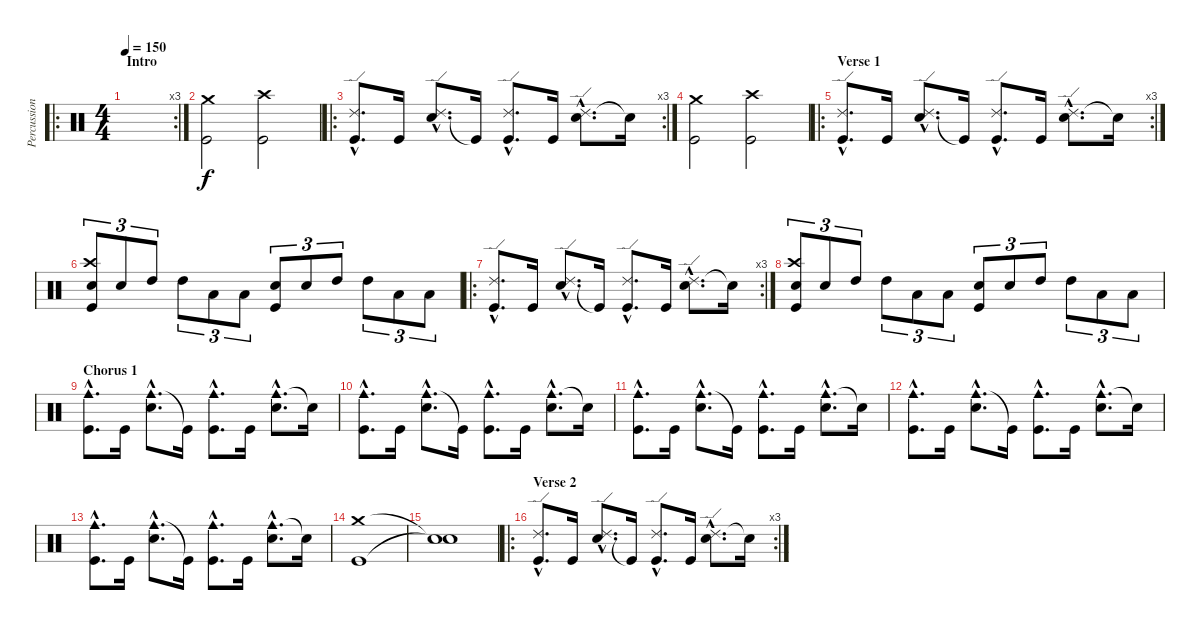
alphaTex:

\track ("Percussion" "Percussion") {instrument percussion}
\staff {score}
\articulation defaults
\ro
\rc 3
\ts (4 4)
\section ("" "Intro")
\tempo 150
\clef neutral
\ks c
|
("Crash medium (hit)" "Kick (hit)").2 ("Crash high (hit)" "Kick (hit)").2 |
\ro
\rc 3
("Ride (edge) 2"{hac} "Kick (hit)"{hac}).8{d} "Kick (hit)".16 ("Ride (edge) 2"{hac} "Snare (hit) 2"{hac}).8{d} "Kick (hit)"{t}.16 ("Ride (edge) 2"{hac} "Kick (hit)"{hac}).8{d} "Kick (hit)".16 ("Ride (edge) 2"{hac} "Snare (hit) 2"{hac}).8{d} "Snare (hit)"{t}.16 |
("Crash medium (hit)" "Kick (hit)").2 ("Crash high (hit)" "Kick (hit)").2 |
\ro
\rc 3
\section ("" "Verse 1")
("Ride (edge) 2"{hac} "Kick (hit)"{hac}).8{d} "Kick (hit)".16 ("Ride (edge) 2"{hac} "Snare (hit) 2"{hac}).8{d} "Kick (hit)"{t}.16 ("Ride (edge) 2"{hac} "Kick (hit)"{hac}).8{d} "Kick (hit)".16 ("Ride (edge) 2"{hac} "Snare (hit) 2"{hac}).8{d} "Snare (hit)"{t}.16 |
("Crash high (hit)" "Snare (hit) 2" "Kick (hit)").8{tu (3 2)} "Snare (hit) 2".8{tu (3 2)} "High Tom (hit)".8{tu (3 2)} "High Tom (hit)".8{tu (3 2)} "Low Floor Tom (hit)".8{tu (3 2)} "Low Floor Tom (hit)".8{tu (3 2)} ("Snare (hit) 2" "Kick (hit)").8{tu (3 2)} "Snare (hit) 2".8{tu (3 2)} "High Tom (hit)".8{tu (3 2)} "High Tom (hit)".8{tu (3 2)} "Low Floor Tom (hit)".8{tu (3 2)} "Low Floor Tom (hit)".8{tu (3 2)} |
\ro
\rc 3
("Ride (edge) 2"{hac} "Kick (hit)"{hac}).8{d} "Kick (hit)".16 ("Ride (edge) 2"{hac} "Snare (hit) 2"{hac}).8{d} "Kick (hit)"{t}.16 ("Ride (edge) 2"{hac} "Kick (hit)"{hac}).8{d} "Kick (hit)".16 ("Ride (edge) 2"{hac} "Snare (hit) 2"{hac}).8{d} "Snare (hit)"{t}.16 |
("Crash high (hit)" "Snare (hit) 2" "Kick (hit)").8{tu (3 2)} "Snare (hit) 2".8{tu (3 2)} "High Tom (hit)".8{tu (3 2)} "High Tom (hit)".8{tu (3 2)} "Low Floor Tom (hit)".8{tu (3 2)} "Low Floor Tom (hit)".8{tu (3 2)} ("Snare (hit) 2" "Kick (hit)").8{tu (3 2)} "Snare (hit) 2".8{tu (3 2)} "High Tom (hit)".8{tu (3 2)} "High Tom (hit)".8{tu (3 2)} "Low Floor Tom (hit)".8{tu (3 2)} "Low Floor Tom (hit)".8{tu (3 2)} |
\section ("" "Chorus 1")
("Cowbell medium (hit)"{hac} "Kick (hit)"{hac}).8{d} "Kick (hit)".16 ("Cowbell medium (hit)"{hac} "Snare (hit) 2"{hac}).8{d} "Kick (hit)"{t}.16 ("Cowbell medium (hit)"{hac} "Kick (hit)"{hac}).8{d} "Kick (hit)".16 ("Cowbell medium (hit)"{hac} "Snare (hit) 2"{hac}).8{d} "Snare (hit)"{t}.16 |
("Cowbell medium (hit)"{hac} "Kick (hit)"{hac}).8{d} "Kick (hit)".16 ("Cowbell medium (hit)"{hac} "Snare (hit) 2"{hac}).8{d} "Kick (hit)"{t}.16 ("Cowbell medium (hit)"{hac} "Kick (hit)"{hac}).8{d} "Kick (hit)".16 ("Cowbell medium (hit)"{hac} "Snare (hit) 2"{hac}).8{d} "Snare (hit)"{t}.16 |
("Cowbell medium (hit)"{hac} "Kick (hit)"{hac}).8{d} "Kick (hit)".16 ("Cowbell medium (hit)"{hac} "Snare (hit) 2"{hac}).8{d} "Kick (hit)"{t}.16 ("Cowbell medium (hit)"{hac} "Kick (hit)"{hac}).8{d} "Kick (hit)".16 ("Cowbell medium (hit)"{hac} "Snare (hit) 2"{hac}).8{d} "Snare (hit)"{t}.16 |
("Cowbell medium (hit)"{hac} "Kick (hit)"{hac}).8{d} "Kick (hit)".16 ("Cowbell medium (hit)"{hac} "Snare (hit) 2"{hac}).8{d} "Kick (hit)"{t}.16 ("Cowbell medium (hit)"{hac} "Kick (hit)"{hac}).8{d} "Kick (hit)".16 ("Cowbell medium (hit)"{hac} "Snare (hit) 2"{hac}).8{d} "Snare (hit)"{t}.16 |
("Cowbell medium (hit)"{hac} "Kick (hit)"{hac}).8{d} "Kick (hit)".16 ("Cowbell medium (hit)"{hac} "Snare (hit) 2"{hac}).8{d} "Kick (hit)"{t}.16 ("Cowbell medium (hit)"{hac} "Kick (hit)"{hac}).8{d} "Kick (hit)".16 ("Cowbell medium (hit)"{hac} "Snare (hit) 2"{hac}).8{d} "Snare (hit)"{t}.16 |
("Crash medium (hit)" "Kick (hit)").1 |
("Snare (hit)"{t} "Snare (hit)"{t}).1 |
\ro
\rc 3
\section ("" "Verse 2")
("Ride (edge) 2"{hac} "Kick (hit)"{hac}).8{d} "Kick (hit)".16 ("Ride (edge) 2"{hac} "Snare (hit) 2"{hac}).8{d} "Kick (hit)"{t}.16 ("Ride (edge) 2"{hac} "Kick (hit)"{hac}).8{d} "Kick (hit)".16 ("Ride (edge) 2"{hac} "Snare (hit) 2"{hac}).8{d} "Snare (hit)"{t}.16
